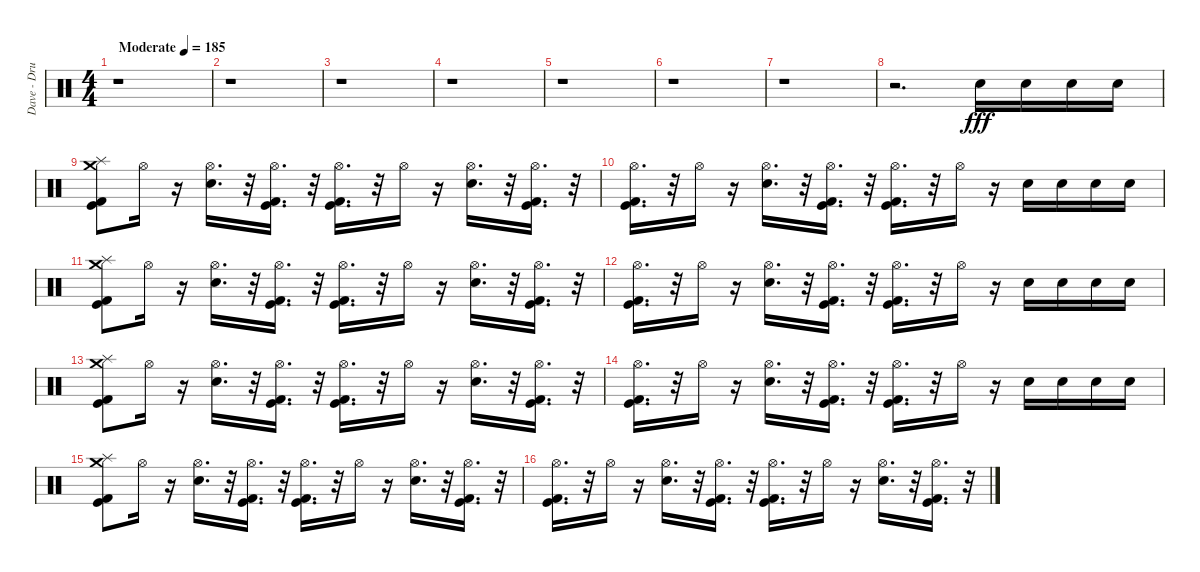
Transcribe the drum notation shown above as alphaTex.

\track ("Dave - Drums" "Dave - Dru") {instrument percussion}
\staff {score}
\articulation defaults
\ts (4 4)
\tempo (185 "Moderate")
\clef neutral
\ks c
r.1{dy fff} |
r.1 |
r.1 |
r.1 |
r.1 |
r.1 |
r.1 |
r.2{d} "Electric Snare (hit)".16 "Electric Snare (hit)".16 "Electric Snare (hit)".16 "Electric Snare (hit)".16 |
("Kick (hit) 2" "Kick (hit)" "Splash (hit)" "Crash medium (hit)").8 "Hi-Hat (open)".16 r.16 ("Electric Snare (hit)" "Hi-Hat (open)").16{d} r.32 ("Kick (hit) 2" "Kick (hit)" "Hi-Hat (open)").16{d} r.32 ("Kick (hit)" "Kick (hit) 2" "Hi-Hat (open)").16{d} r.32 "Hi-Hat (open)".16 r.16 ("Electric Snare (hit)" "Hi-Hat (open)").16{d} r.32 ("Kick (hit)" "Kick (hit) 2" "Hi-Hat (open)").16{d} r.32 |
("Kick (hit)" "Kick (hit) 2" "Hi-Hat (open)").16{d} r.32 "Hi-Hat (open)".16 r.16 ("Electric Snare (hit)" "Hi-Hat (open)").16{d} r.32 ("Hi-Hat (open)" "Kick (hit)" "Kick (hit) 2").16{d} r.32 ("Kick (hit)" "Kick (hit) 2" "Hi-Hat (open)").16{d} r.32 "Hi-Hat (open)".16 r.16 "Electric Snare (hit)".16 "Electric Snare (hit)".16 "Electric Snare (hit)".16 "Electric Snare (hit)".16 |
("Kick (hit) 2" "Kick (hit)" "Splash (hit)" "Crash medium (hit)").8 "Hi-Hat (open)".16 r.16 ("Electric Snare (hit)" "Hi-Hat (open)").16{d} r.32 ("Kick (hit) 2" "Kick (hit)" "Hi-Hat (open)").16{d} r.32 ("Kick (hit)" "Kick (hit) 2" "Hi-Hat (open)").16{d} r.32 "Hi-Hat (open)".16 r.16 ("Electric Snare (hit)" "Hi-Hat (open)").16{d} r.32 ("Kick (hit)" "Kick (hit) 2" "Hi-Hat (open)").16{d} r.32 |
("Kick (hit)" "Kick (hit) 2" "Hi-Hat (open)").16{d} r.32 "Hi-Hat (open)".16 r.16 ("Electric Snare (hit)" "Hi-Hat (open)").16{d} r.32 ("Hi-Hat (open)" "Kick (hit)" "Kick (hit) 2").16{d} r.32 ("Kick (hit)" "Kick (hit) 2" "Hi-Hat (open)").16{d} r.32 "Hi-Hat (open)".16 r.16 "Electric Snare (hit)".16 "Electric Snare (hit)".16 "Electric Snare (hit)".16 "Electric Snare (hit)".16 |
("Kick (hit) 2" "Kick (hit)" "Splash (hit)" "Crash medium (hit)").8 "Hi-Hat (open)".16 r.16 ("Electric Snare (hit)" "Hi-Hat (open)").16{d} r.32 ("Kick (hit) 2" "Kick (hit)" "Hi-Hat (open)").16{d} r.32 ("Kick (hit)" "Kick (hit) 2" "Hi-Hat (open)").16{d} r.32 "Hi-Hat (open)".16 r.16 ("Electric Snare (hit)" "Hi-Hat (open)").16{d} r.32 ("Kick (hit)" "Kick (hit) 2" "Hi-Hat (open)").16{d} r.32 |
("Kick (hit)" "Kick (hit) 2" "Hi-Hat (open)").16{d} r.32 "Hi-Hat (open)".16 r.16 ("Electric Snare (hit)" "Hi-Hat (open)").16{d} r.32 ("Hi-Hat (open)" "Kick (hit)" "Kick (hit) 2").16{d} r.32 ("Kick (hit)" "Kick (hit) 2" "Hi-Hat (open)").16{d} r.32 "Hi-Hat (open)".16 r.16 "Electric Snare (hit)".16 "Electric Snare (hit)".16 "Electric Snare (hit)".16 "Electric Snare (hit)".16 |
("Kick (hit) 2" "Kick (hit)" "Splash (hit)" "Crash medium (hit)").8 "Hi-Hat (open)".16 r.16 ("Electric Snare (hit)" "Hi-Hat (open)").16{d} r.32 ("Kick (hit) 2" "Kick (hit)" "Hi-Hat (open)").16{d} r.32 ("Kick (hit)" "Kick (hit) 2" "Hi-Hat (open)").16{d} r.32 "Hi-Hat (open)".16 r.16 ("Electric Snare (hit)" "Hi-Hat (open)").16{d} r.32 ("Kick (hit)" "Kick (hit) 2" "Hi-Hat (open)").16{d} r.32 |
("Kick (hit)" "Kick (hit) 2" "Hi-Hat (open)").16{d} r.32 "Hi-Hat (open)".16 r.16 ("Electric Snare (hit)" "Hi-Hat (open)").16{d} r.32 ("Hi-Hat (open)" "Kick (hit)" "Kick (hit) 2").16{d} r.32 ("Kick (hit)" "Kick (hit) 2" "Hi-Hat (open)").16{d} r.32 "Hi-Hat (open)".16 r.16 ("Hi-Hat (open)" "Electric Snare (hit)").16{d} r.32 ("Hi-Hat (open)" "Kick (hit)" "Kick (hit) 2").16{d} r.32
